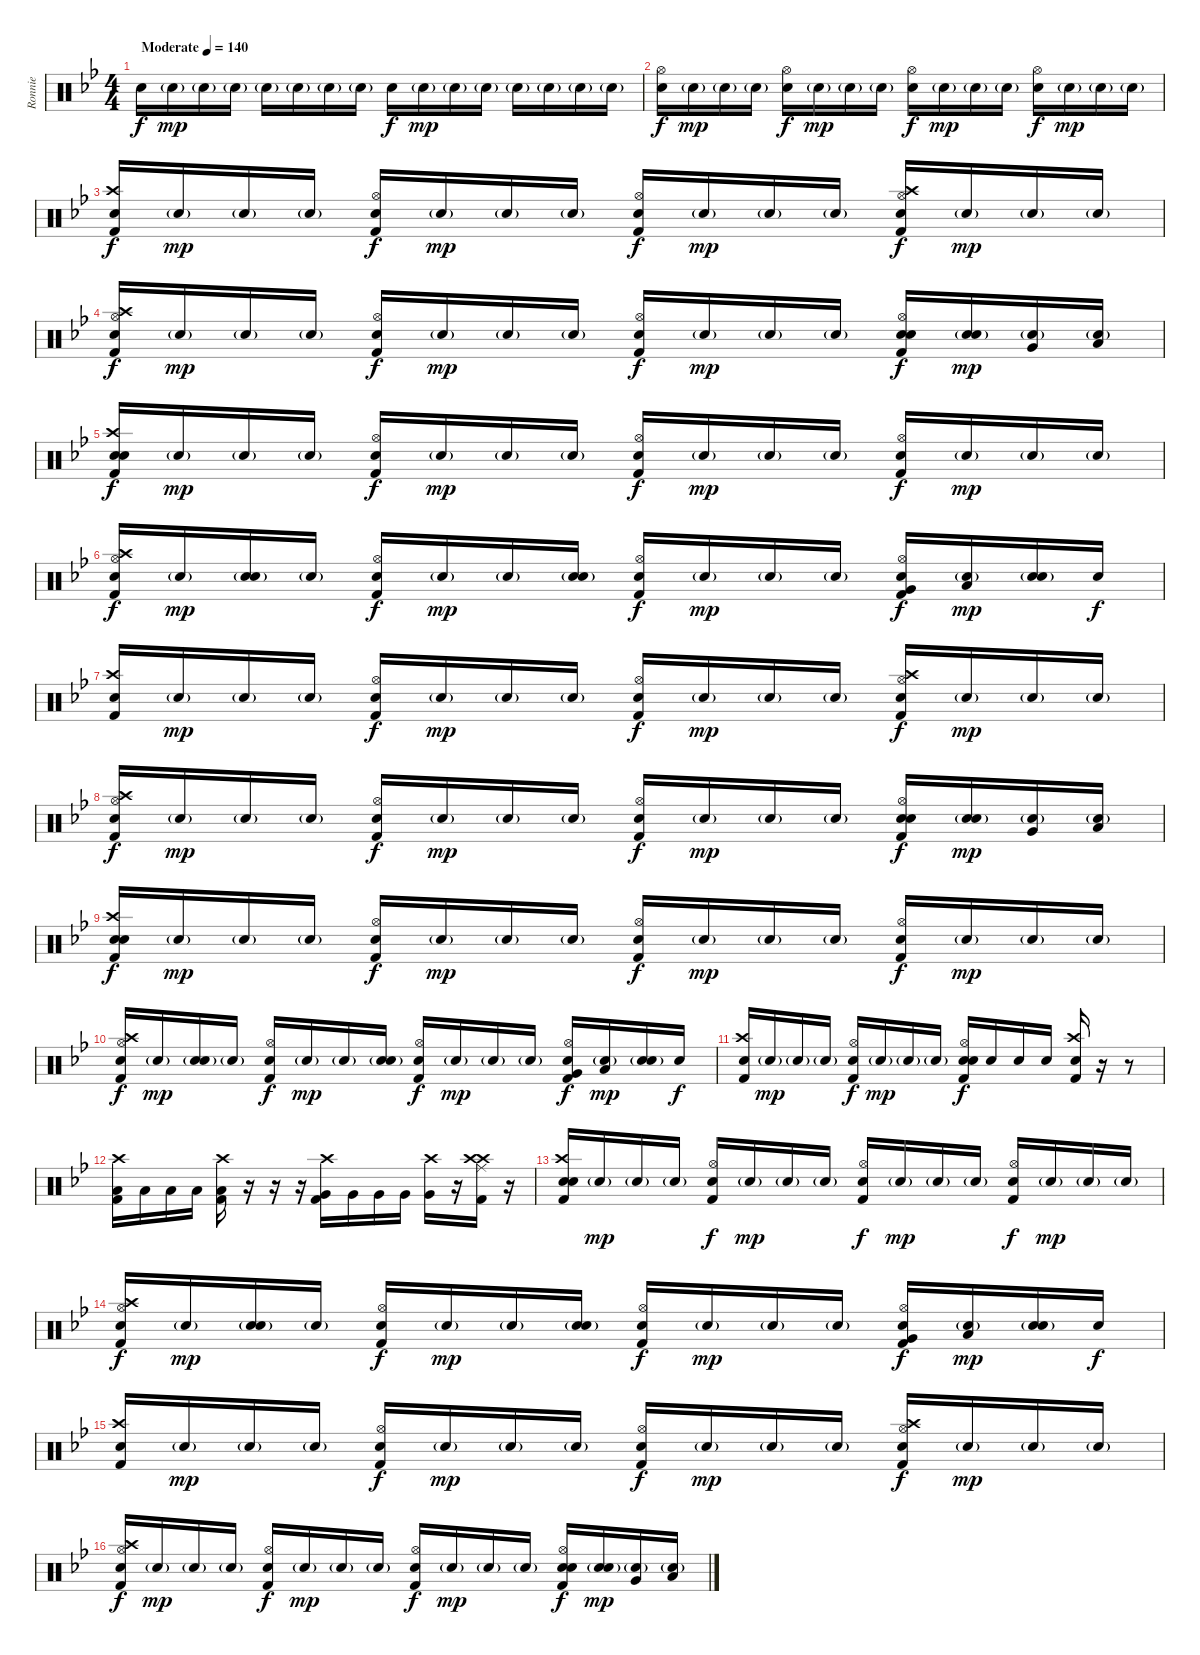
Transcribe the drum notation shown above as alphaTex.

\track ("Ronnie" "Ronnie") {instrument percussion}
\staff {score}
\articulation defaults
\ts (4 4)
\tempo (140 "Moderate")
\clef neutral
\ks bb "Electric Snare (hit)".16{dy f} "Electric Snare (hit)"{g}.16{dy mp} "Electric Snare (hit)"{g}.16 "Electric Snare (hit)"{g}.16 "Electric Snare (hit)"{g}.16 "Electric Snare (hit)"{g}.16 "Electric Snare (hit)"{g}.16 "Electric Snare (hit)"{g}.16 "Electric Snare (hit)".16{dy f} "Electric Snare (hit)"{g}.16{dy mp} "Electric Snare (hit)"{g}.16 "Electric Snare (hit)"{g}.16 "Electric Snare (hit)"{g}.16 "Electric Snare (hit)"{g}.16 "Electric Snare (hit)"{g}.16 "Electric Snare (hit)"{g}.16
|
("Electric Snare (hit)" "Hi-Hat (open)").16{dy f} "Electric Snare (hit)"{g}.16{dy mp} "Electric Snare (hit)"{g}.16 "Electric Snare (hit)"{g}.16 ("Electric Snare (hit)" "Hi-Hat (open)").16{dy f} "Electric Snare (hit)"{g}.16{dy mp} "Electric Snare (hit)"{g}.16 "Electric Snare (hit)"{g}.16 ("Electric Snare (hit)" "Hi-Hat (open)").16{dy f} "Electric Snare (hit)"{g}.16{dy mp} "Electric Snare (hit)"{g}.16 "Electric Snare (hit)"{g}.16 ("Electric Snare (hit)" "Hi-Hat (open)").16{dy f} "Electric Snare (hit)"{g}.16{dy mp} "Electric Snare (hit)"{g}.16 "Electric Snare (hit)"{g}.16 |
("Electric Snare (hit)" "Crash high (hit)" "Kick (hit) 2").16{dy f} "Electric Snare (hit)"{g}.16{dy mp} "Electric Snare (hit)"{g}.16 "Electric Snare (hit)"{g}.16 ("Electric Snare (hit)" "Hi-Hat (open)" "Kick (hit) 2").16{dy f} "Electric Snare (hit)"{g}.16{dy mp} "Electric Snare (hit)"{g}.16 "Electric Snare (hit)"{g}.16 ("Electric Snare (hit)" "Hi-Hat (open)" "Kick (hit) 2").16{dy f} "Electric Snare (hit)"{g}.16{dy mp} "Electric Snare (hit)"{g}.16 "Electric Snare (hit)"{g}.16 ("Electric Snare (hit)" "Hi-Hat (open)" "Kick (hit) 2" "Crash high (hit)").16{dy f} "Electric Snare (hit)"{g}.16{dy mp} "Electric Snare (hit)"{g}.16 "Electric Snare (hit)"{g}.16 |
("Electric Snare (hit)" "Hi-Hat (open)" "Kick (hit) 2" "Crash high (hit)").16{dy f} "Electric Snare (hit)"{g}.16{dy mp} "Electric Snare (hit)"{g}.16 "Electric Snare (hit)"{g}.16 ("Electric Snare (hit)" "Hi-Hat (open)" "Kick (hit) 2").16{dy f} "Electric Snare (hit)"{g}.16{dy mp} "Electric Snare (hit)"{g}.16 "Electric Snare (hit)"{g}.16 ("Electric Snare (hit)" "Hi-Hat (open)" "Kick (hit) 2").16{dy f} "Electric Snare (hit)"{g}.16{dy mp} "Electric Snare (hit)"{g}.16 "Electric Snare (hit)"{g}.16 ("Electric Snare (hit)" "Hi-Hat (open)" "Kick (hit) 2" "Electric Snare (hit)").16{dy f} ("Electric Snare (hit)"{g} "Electric Snare (hit)").16{dy mp} ("Electric Snare (hit)"{g} "Very Low Tom (hit)").16 ("Electric Snare (hit)"{g} "Low Tom (hit)").16 |
("Electric Snare (hit)" "Crash high (hit)" "Kick (hit) 2" "Electric Snare (hit)").16{dy f} "Electric Snare (hit)"{g}.16{dy mp} "Electric Snare (hit)"{g}.16 "Electric Snare (hit)"{g}.16 ("Electric Snare (hit)" "Hi-Hat (open)" "Kick (hit) 2").16{dy f} "Electric Snare (hit)"{g}.16{dy mp} "Electric Snare (hit)"{g}.16 "Electric Snare (hit)"{g}.16 ("Electric Snare (hit)" "Hi-Hat (open)" "Kick (hit) 2").16{dy f} "Electric Snare (hit)"{g}.16{dy mp} "Electric Snare (hit)"{g}.16 "Electric Snare (hit)"{g}.16 ("Electric Snare (hit)" "Hi-Hat (open)" "Kick (hit) 2").16{dy f} "Electric Snare (hit)"{g}.16{dy mp} "Electric Snare (hit)"{g}.16 "Electric Snare (hit)"{g}.16 |
("Electric Snare (hit)" "Hi-Hat (open)" "Kick (hit) 2" "Crash high (hit)").16{dy f} "Electric Snare (hit)"{g}.16{dy mp} ("Electric Snare (hit)"{g} "Electric Snare (hit)").16 "Electric Snare (hit)"{g}.16 ("Electric Snare (hit)" "Hi-Hat (open)" "Kick (hit) 2").16{dy f} "Electric Snare (hit)"{g}.16{dy mp} "Electric Snare (hit)"{g}.16 ("Electric Snare (hit)"{g} "Electric Snare (hit)").16 ("Electric Snare (hit)" "Hi-Hat (open)" "Kick (hit) 2").16{dy f} "Electric Snare (hit)"{g}.16{dy mp} "Electric Snare (hit)"{g}.16 "Electric Snare (hit)"{g}.16 ("Electric Snare (hit)" "Hi-Hat (open)" "Kick (hit) 2" "Very Low Tom (hit)").16{dy f} ("Electric Snare (hit)"{g} "Low Tom (hit)").16{dy mp} ("Electric Snare (hit)"{g} "Electric Snare (hit)").16 "Electric Snare (hit)".16{dy f} |
("Electric Snare (hit)" "Crash high (hit)" "Kick (hit) 2").16 "Electric Snare (hit)"{g}.16{dy mp} "Electric Snare (hit)"{g}.16 "Electric Snare (hit)"{g}.16 ("Electric Snare (hit)" "Hi-Hat (open)" "Kick (hit) 2").16{dy f} "Electric Snare (hit)"{g}.16{dy mp} "Electric Snare (hit)"{g}.16 "Electric Snare (hit)"{g}.16 ("Electric Snare (hit)" "Hi-Hat (open)" "Kick (hit) 2").16{dy f} "Electric Snare (hit)"{g}.16{dy mp} "Electric Snare (hit)"{g}.16 "Electric Snare (hit)"{g}.16 ("Electric Snare (hit)" "Hi-Hat (open)" "Kick (hit) 2" "Crash high (hit)").16{dy f} "Electric Snare (hit)"{g}.16{dy mp} "Electric Snare (hit)"{g}.16 "Electric Snare (hit)"{g}.16 |
("Electric Snare (hit)" "Hi-Hat (open)" "Kick (hit) 2" "Crash high (hit)").16{dy f} "Electric Snare (hit)"{g}.16{dy mp} "Electric Snare (hit)"{g}.16 "Electric Snare (hit)"{g}.16 ("Electric Snare (hit)" "Hi-Hat (open)" "Kick (hit) 2").16{dy f} "Electric Snare (hit)"{g}.16{dy mp} "Electric Snare (hit)"{g}.16 "Electric Snare (hit)"{g}.16 ("Electric Snare (hit)" "Hi-Hat (open)" "Kick (hit) 2").16{dy f} "Electric Snare (hit)"{g}.16{dy mp} "Electric Snare (hit)"{g}.16 "Electric Snare (hit)"{g}.16 ("Electric Snare (hit)" "Hi-Hat (open)" "Kick (hit) 2" "Electric Snare (hit)").16{dy f} ("Electric Snare (hit)"{g} "Electric Snare (hit)").16{dy mp} ("Electric Snare (hit)"{g} "Very Low Tom (hit)").16 ("Electric Snare (hit)"{g} "Low Tom (hit)").16 |
("Electric Snare (hit)" "Crash high (hit)" "Kick (hit) 2" "Electric Snare (hit)").16{dy f} "Electric Snare (hit)"{g}.16{dy mp} "Electric Snare (hit)"{g}.16 "Electric Snare (hit)"{g}.16 ("Electric Snare (hit)" "Hi-Hat (open)" "Kick (hit) 2").16{dy f} "Electric Snare (hit)"{g}.16{dy mp} "Electric Snare (hit)"{g}.16 "Electric Snare (hit)"{g}.16 ("Electric Snare (hit)" "Hi-Hat (open)" "Kick (hit) 2").16{dy f} "Electric Snare (hit)"{g}.16{dy mp} "Electric Snare (hit)"{g}.16 "Electric Snare (hit)"{g}.16 ("Electric Snare (hit)" "Hi-Hat (open)" "Kick (hit) 2").16{dy f} "Electric Snare (hit)"{g}.16{dy mp} "Electric Snare (hit)"{g}.16 "Electric Snare (hit)"{g}.16 |
("Electric Snare (hit)" "Hi-Hat (open)" "Kick (hit) 2" "Crash high (hit)").16{dy f} "Electric Snare (hit)"{g}.16{dy mp} ("Electric Snare (hit)"{g} "Electric Snare (hit)").16 "Electric Snare (hit)"{g}.16 ("Electric Snare (hit)" "Hi-Hat (open)" "Kick (hit) 2").16{dy f} "Electric Snare (hit)"{g}.16{dy mp} "Electric Snare (hit)"{g}.16 ("Electric Snare (hit)"{g} "Electric Snare (hit)").16 ("Electric Snare (hit)" "Hi-Hat (open)" "Kick (hit) 2").16{dy f} "Electric Snare (hit)"{g}.16{dy mp} "Electric Snare (hit)"{g}.16 "Electric Snare (hit)"{g}.16 ("Electric Snare (hit)" "Hi-Hat (open)" "Kick (hit) 2" "Very Low Tom (hit)").16{dy f} ("Electric Snare (hit)"{g} "Low Tom (hit)").16{dy mp} ("Electric Snare (hit)"{g} "Electric Snare (hit)").16 "Electric Snare (hit)".16{dy f} |
("Electric Snare (hit)" "Crash high (hit)" "Kick (hit) 2").16 "Electric Snare (hit)"{g}.16{dy mp} "Electric Snare (hit)"{g}.16 "Electric Snare (hit)"{g}.16 ("Electric Snare (hit)" "Hi-Hat (open)" "Kick (hit) 2").16{dy f} "Electric Snare (hit)"{g}.16{dy mp} "Electric Snare (hit)"{g}.16 "Electric Snare (hit)"{g}.16 ("Electric Snare (hit)" "Hi-Hat (open)" "Kick (hit) 2" "Electric Snare (hit)").16{dy f} "Electric Snare (hit)".16 "Electric Snare (hit)".16 "Electric Snare (hit)".16 ("Crash high (hit)" "Kick (hit) 2" "Electric Snare (hit)").16 r.16 r.8 |
("Crash high (hit)" "Kick (hit) 2" "Low Tom (hit)").16 "Low Tom (hit)".16 "Low Tom (hit)".16 "Low Tom (hit)".16 ("Crash high (hit)" "Kick (hit) 2" "Low Tom (hit)").16 r.16 r.16 r.16 ("Crash high (hit)" "Kick (hit) 2" "Very Low Tom (hit)").16 "Very Low Tom (hit)".16 "Very Low Tom (hit)".16 "Very Low Tom (hit)".16 ("Crash high (hit)" "Very Low Tom (hit)").16 r.16 ("Crash high (hit)" "Ride (middle)" "Kick (hit) 2" "Crash high (hit)").16 r.16 |
("Electric Snare (hit)" "Crash high (hit)" "Kick (hit) 2" "Electric Snare (hit)").16 "Electric Snare (hit)"{g}.16{dy mp} "Electric Snare (hit)"{g}.16 "Electric Snare (hit)"{g}.16 ("Electric Snare (hit)" "Hi-Hat (open)" "Kick (hit) 2").16{dy f} "Electric Snare (hit)"{g}.16{dy mp} "Electric Snare (hit)"{g}.16 "Electric Snare (hit)"{g}.16 ("Electric Snare (hit)" "Hi-Hat (open)" "Kick (hit) 2").16{dy f} "Electric Snare (hit)"{g}.16{dy mp} "Electric Snare (hit)"{g}.16 "Electric Snare (hit)"{g}.16 ("Electric Snare (hit)" "Hi-Hat (open)" "Kick (hit) 2").16{dy f} "Electric Snare (hit)"{g}.16{dy mp} "Electric Snare (hit)"{g}.16 "Electric Snare (hit)"{g}.16 |
("Electric Snare (hit)" "Hi-Hat (open)" "Kick (hit) 2" "Crash high (hit)").16{dy f} "Electric Snare (hit)"{g}.16{dy mp} ("Electric Snare (hit)"{g} "Electric Snare (hit)").16 "Electric Snare (hit)"{g}.16 ("Electric Snare (hit)" "Hi-Hat (open)" "Kick (hit) 2").16{dy f} "Electric Snare (hit)"{g}.16{dy mp} "Electric Snare (hit)"{g}.16 ("Electric Snare (hit)"{g} "Electric Snare (hit)").16 ("Electric Snare (hit)" "Hi-Hat (open)" "Kick (hit) 2").16{dy f} "Electric Snare (hit)"{g}.16{dy mp} "Electric Snare (hit)"{g}.16 "Electric Snare (hit)"{g}.16 ("Electric Snare (hit)" "Hi-Hat (open)" "Kick (hit) 2" "Very Low Tom (hit)").16{dy f} ("Electric Snare (hit)"{g} "Low Tom (hit)").16{dy mp} ("Electric Snare (hit)"{g} "Electric Snare (hit)").16 "Electric Snare (hit)".16{dy f} |
("Electric Snare (hit)" "Crash high (hit)" "Kick (hit) 2").16 "Electric Snare (hit)"{g}.16{dy mp} "Electric Snare (hit)"{g}.16 "Electric Snare (hit)"{g}.16 ("Electric Snare (hit)" "Hi-Hat (open)" "Kick (hit) 2").16{dy f} "Electric Snare (hit)"{g}.16{dy mp} "Electric Snare (hit)"{g}.16 "Electric Snare (hit)"{g}.16 ("Electric Snare (hit)" "Hi-Hat (open)" "Kick (hit) 2").16{dy f} "Electric Snare (hit)"{g}.16{dy mp} "Electric Snare (hit)"{g}.16 "Electric Snare (hit)"{g}.16 ("Electric Snare (hit)" "Hi-Hat (open)" "Kick (hit) 2" "Crash high (hit)").16{dy f} "Electric Snare (hit)"{g}.16{dy mp} "Electric Snare (hit)"{g}.16 "Electric Snare (hit)"{g}.16 |
("Electric Snare (hit)" "Hi-Hat (open)" "Kick (hit) 2" "Crash high (hit)").16{dy f} "Electric Snare (hit)"{g}.16{dy mp} "Electric Snare (hit)"{g}.16 "Electric Snare (hit)"{g}.16 ("Electric Snare (hit)" "Hi-Hat (open)" "Kick (hit) 2").16{dy f} "Electric Snare (hit)"{g}.16{dy mp} "Electric Snare (hit)"{g}.16 "Electric Snare (hit)"{g}.16 ("Electric Snare (hit)" "Hi-Hat (open)" "Kick (hit) 2").16{dy f} "Electric Snare (hit)"{g}.16{dy mp} "Electric Snare (hit)"{g}.16 "Electric Snare (hit)"{g}.16 ("Electric Snare (hit)" "Hi-Hat (open)" "Kick (hit) 2" "Electric Snare (hit)").16{dy f} ("Electric Snare (hit)"{g} "Electric Snare (hit)").16{dy mp} ("Electric Snare (hit)"{g} "Very Low Tom (hit)").16 ("Electric Snare (hit)"{g} "Low Tom (hit)").16
